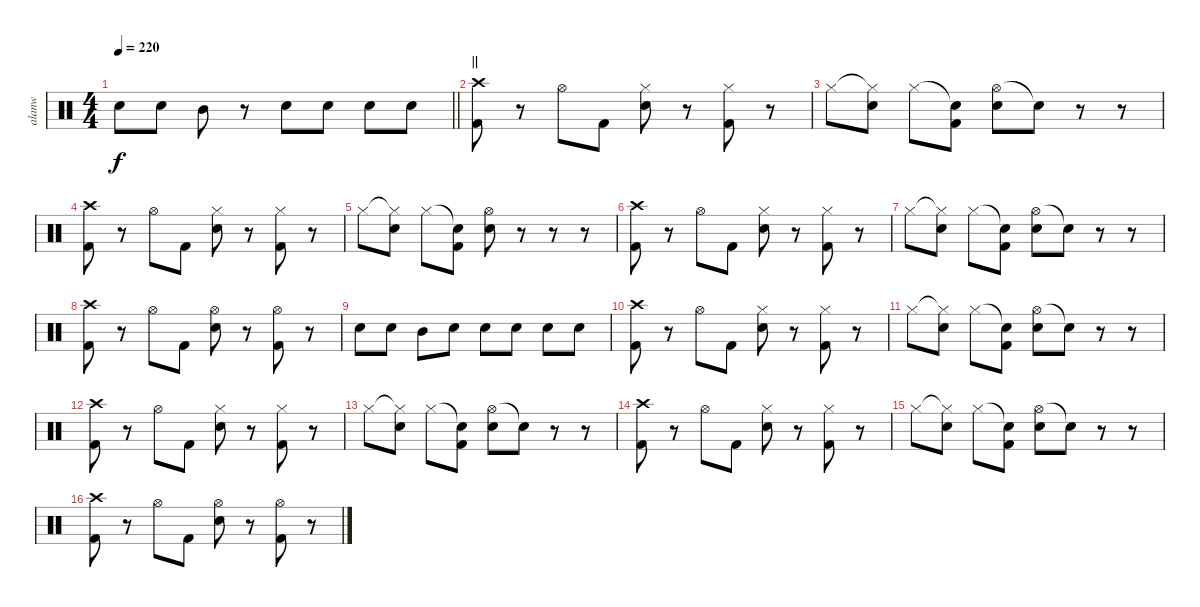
\track ("alanw" "alanw") {instrument percussion}
\staff {score}
\articulation defaults
\ts (4 4)
\tempo 220
\clef neutral
\barLineRight lightlight
\ks c "Electric Snare (hit)".8{dy f} "Electric Snare (hit)".8 "Mid Tom (hit)".8
r.8 "Electric Snare (hit)".8 "Electric Snare (hit)".8 "Electric Snare (hit)".8 "Electric Snare (hit)".8 |
\section ("" "||")
("Crash high (hit)" "Kick (hit) 2").8 r.8 "Hi-Hat (open)".8 "Kick (hit) 2".8 ("Hi-Hat (closed)" "Electric Snare (hit)").8 r.8 ("Hi-Hat (closed)" "Kick (hit) 2").8 r.8 |
"Hi-Hat (closed)".8 ("Hi-Hat (closed)"{t} "Electric Snare (hit)").8 "Hi-Hat (closed)".8 ("Snare (hit)"{t} "Kick (hit) 2").8 ("Hi-Hat (open)" "Electric Snare (hit)").8 "Snare (hit)"{t}.8 r.8 r.8 |
("Crash high (hit)" "Kick (hit) 2").8 r.8 "Hi-Hat (open)".8 "Kick (hit) 2".8 ("Hi-Hat (closed)" "Electric Snare (hit)").8 r.8 ("Hi-Hat (closed)" "Kick (hit) 2").8 r.8 |
"Hi-Hat (closed)".8 ("Hi-Hat (closed)"{t} "Electric Snare (hit)").8 "Hi-Hat (closed)".8 ("Snare (hit)"{t} "Kick (hit) 2").8 ("Hi-Hat (open)" "Electric Snare (hit)").8 r.8 r.8 r.8 |
("Crash high (hit)" "Kick (hit) 2").8 r.8 "Hi-Hat (open)".8 "Kick (hit) 2".8 ("Hi-Hat (closed)" "Electric Snare (hit)").8 r.8 ("Hi-Hat (closed)" "Kick (hit) 2").8 r.8 |
"Hi-Hat (closed)".8 ("Hi-Hat (closed)"{t} "Electric Snare (hit)").8 "Hi-Hat (closed)".8 ("Snare (hit)"{t} "Kick (hit) 2").8 ("Hi-Hat (open)" "Electric Snare (hit)").8 "Snare (hit)"{t}.8 r.8 r.8 |
("Crash high (hit)" "Kick (hit) 2").8 r.8 "Hi-Hat (open)".8 "Kick (hit) 2".8 ("Hi-Hat (open)" "Electric Snare (hit)").8 r.8 ("Hi-Hat (open)" "Kick (hit) 2").8 r.8 |
"Electric Snare (hit)".8 "Electric Snare (hit)".8 "Mid Tom (hit)".8 "Electric Snare (hit)".8 "Electric Snare (hit)".8 "Electric Snare (hit)".8 "Electric Snare (hit)".8 "Electric Snare (hit)".8 |
("Crash high (hit)" "Kick (hit) 2").8 r.8 "Hi-Hat (open)".8 "Kick (hit) 2".8 ("Hi-Hat (closed)" "Electric Snare (hit)").8 r.8 ("Hi-Hat (closed)" "Kick (hit) 2").8 r.8 |
"Hi-Hat (closed)".8 ("Hi-Hat (closed)"{t} "Electric Snare (hit)").8 "Hi-Hat (closed)".8 ("Snare (hit)"{t} "Kick (hit) 2").8 ("Hi-Hat (open)" "Electric Snare (hit)").8 "Snare (hit)"{t}.8 r.8 r.8 |
("Crash high (hit)" "Kick (hit) 2").8 r.8 "Hi-Hat (open)".8 "Kick (hit) 2".8 ("Hi-Hat (closed)" "Electric Snare (hit)").8 r.8 ("Hi-Hat (closed)" "Kick (hit) 2").8 r.8 |
"Hi-Hat (closed)".8 ("Hi-Hat (closed)"{t} "Electric Snare (hit)").8 "Hi-Hat (closed)".8 ("Snare (hit)"{t} "Kick (hit) 2").8 ("Hi-Hat (open)" "Electric Snare (hit)").8 "Snare (hit)"{t}.8 r.8 r.8 |
("Crash high (hit)" "Kick (hit) 2").8 r.8 "Hi-Hat (open)".8 "Kick (hit) 2".8 ("Hi-Hat (closed)" "Electric Snare (hit)").8 r.8 ("Hi-Hat (closed)" "Kick (hit) 2").8 r.8 |
"Hi-Hat (closed)".8 ("Hi-Hat (closed)"{t} "Electric Snare (hit)").8 "Hi-Hat (closed)".8 ("Snare (hit)"{t} "Kick (hit) 2").8 ("Hi-Hat (open)" "Electric Snare (hit)").8 "Snare (hit)"{t}.8 r.8 r.8 |
("Crash high (hit)" "Kick (hit) 2").8 r.8 "Hi-Hat (open)".8 "Kick (hit) 2".8 ("Hi-Hat (open)" "Electric Snare (hit)").8 r.8 ("Hi-Hat (open)" "Kick (hit) 2").8 r.8
